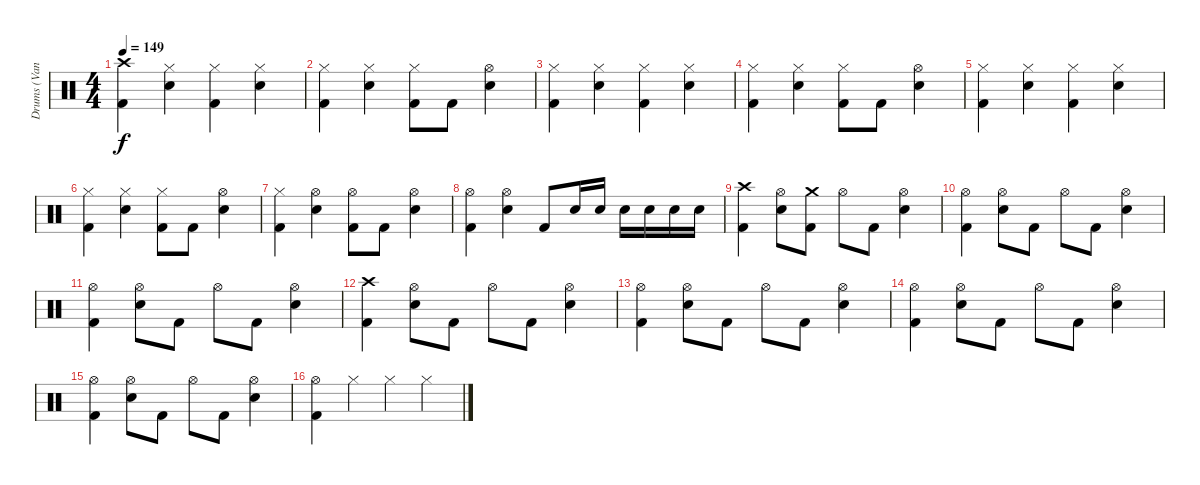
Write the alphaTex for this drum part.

\track ("Drums (Vandel)" "Drums (Van") {instrument percussion}
\staff {score}
\articulation defaults
\ts (4 4)
\tempo 149
\clef neutral
\ks c
("Crash high (hit)" "Kick (hit) 2").4{dy f} ("Hi-Hat (closed)" "Snare (hit) 2").4 ("Hi-Hat (closed)" "Kick (hit) 2").4 ("Hi-Hat (closed)" "Snare (hit) 2").4 |
("Hi-Hat (closed)" "Kick (hit) 2").4 ("Hi-Hat (closed)" "Snare (hit) 2").4 ("Hi-Hat (closed)" "Kick (hit) 2").8 "Kick (hit) 2".8 ("Hi-Hat (open)" "Snare (hit) 2").4 |
("Hi-Hat (closed)" "Kick (hit) 2").4 ("Hi-Hat (closed)" "Snare (hit) 2").4 ("Hi-Hat (closed)" "Kick (hit) 2").4 ("Hi-Hat (closed)" "Snare (hit) 2").4 |
("Hi-Hat (closed)" "Kick (hit) 2").4 ("Hi-Hat (closed)" "Snare (hit) 2").4 ("Hi-Hat (closed)" "Kick (hit) 2").8 "Kick (hit) 2".8 ("Hi-Hat (open)" "Snare (hit) 2").4 |
("Hi-Hat (closed)" "Kick (hit) 2").4 ("Hi-Hat (closed)" "Snare (hit) 2").4 ("Hi-Hat (closed)" "Kick (hit) 2").4 ("Hi-Hat (closed)" "Snare (hit) 2").4 |
("Hi-Hat (closed)" "Kick (hit) 2").4 ("Hi-Hat (closed)" "Snare (hit) 2").4 ("Hi-Hat (closed)" "Kick (hit) 2").8 "Kick (hit) 2".8 ("Hi-Hat (open)" "Snare (hit) 2").4 |
("Hi-Hat (closed)" "Kick (hit) 2").4 ("Hi-Hat (open)" "Snare (hit) 2").4 ("Hi-Hat (open)" "Kick (hit) 2").8 "Kick (hit) 2".8 ("Hi-Hat (open)" "Snare (hit) 2").4 |
("Hi-Hat (open)" "Kick (hit) 2").4 ("Hi-Hat (open)" "Snare (hit) 2").4 "Kick (hit) 2".8 "Snare (hit) 2".16 "Snare (hit) 2".16 "Snare (hit) 2".16 "Snare (hit) 2".16 "Snare (hit) 2".16 "Snare (hit) 2".16 |
("Crash high (hit)" "Kick (hit) 2").4 ("Hi-Hat (open)" "Snare (hit) 2").8 ("Crash medium (hit)" "Kick (hit) 2").8 "Hi-Hat (open)".8 "Kick (hit) 2".8 ("Hi-Hat (open)" "Snare (hit) 2").4 |
("Hi-Hat (open)" "Kick (hit) 2").4 ("Hi-Hat (open)" "Snare (hit) 2").8 "Kick (hit) 2".8 "Hi-Hat (open)".8 "Kick (hit) 2".8 ("Hi-Hat (open)" "Snare (hit) 2").4 |
("Hi-Hat (open)" "Kick (hit) 2").4 ("Hi-Hat (open)" "Snare (hit) 2").8 "Kick (hit) 2".8 "Hi-Hat (open)".8 "Kick (hit) 2".8 ("Hi-Hat (open)" "Snare (hit) 2").4 |
("Crash high (hit)" "Kick (hit) 2").4 ("Hi-Hat (open)" "Snare (hit) 2").8 "Kick (hit) 2".8 "Hi-Hat (open)".8 "Kick (hit) 2".8 ("Hi-Hat (open)" "Snare (hit) 2").4 |
("Hi-Hat (open)" "Kick (hit) 2").4 ("Hi-Hat (open)" "Snare (hit) 2").8 "Kick (hit) 2".8 "Hi-Hat (open)".8 "Kick (hit) 2".8 ("Hi-Hat (open)" "Snare (hit) 2").4 |
("Hi-Hat (open)" "Kick (hit) 2").4 ("Hi-Hat (open)" "Snare (hit) 2").8 "Kick (hit) 2".8 "Hi-Hat (open)".8 "Kick (hit) 2".8 ("Hi-Hat (open)" "Snare (hit) 2").4 |
("Hi-Hat (open)" "Kick (hit) 2").4 ("Hi-Hat (open)" "Snare (hit) 2").8 "Kick (hit) 2".8 "Hi-Hat (open)".8 "Kick (hit) 2".8 ("Hi-Hat (open)" "Snare (hit) 2").4 |
("Hi-Hat (open)" "Kick (hit) 2").4 "Hi-Hat (closed)".4 "Hi-Hat (closed)".4 "Hi-Hat (closed)".4
